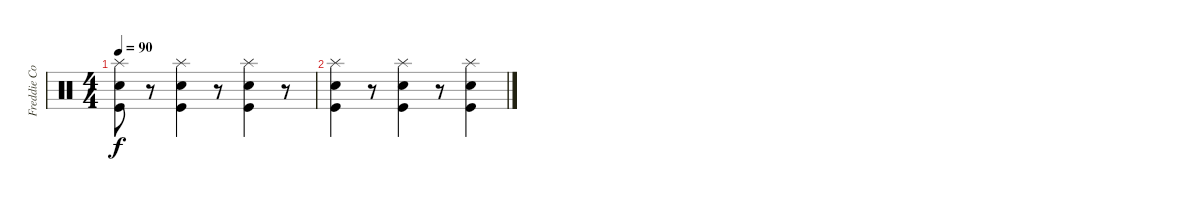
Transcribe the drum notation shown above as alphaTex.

\track ("Freddie Coury - Drums" "Freddie Co") {instrument percussion}
\staff {score}
\articulation defaults
\ts (4 4)
\tempo 90
\clef neutral
\ks c
("Splash (hit)"{t} "Snare (hit) 2"{t} "Kick (hit)"{t}).8{dy f} r.8 ("Splash (hit)" "Snare (hit) 2" "Kick (hit)").4 r.8 ("Splash (hit)" "Snare (hit) 2" "Kick (hit)").4 r.8 |
("Splash (hit)" "Snare (hit) 2" "Kick (hit)").4 r.8 ("Splash (hit)" "Snare (hit) 2" "Kick (hit)").4 r.8 ("Splash (hit)" "Snare (hit) 2" "Kick (hit)").4
